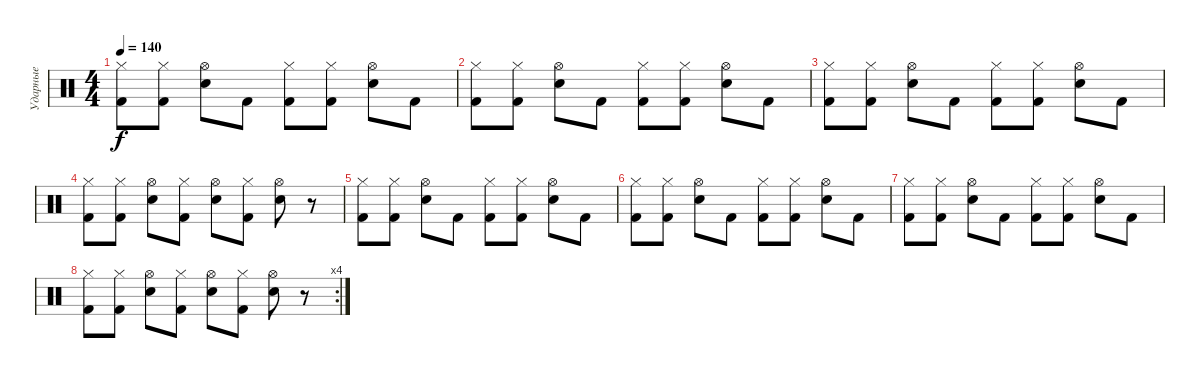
\track ("Ударные" "Ударные") {instrument percussion}
\staff {score}
\articulation defaults
\ts (4 4)
\tempo 140
\clef neutral
\ks c
("Hi-Hat (closed)" "Kick (hit) 2").8{dy f} ("Hi-Hat (closed)" "Kick (hit) 2").8 ("Hi-Hat (open)" "Electric Snare (hit)").8 "Kick (hit) 2".8 ("Hi-Hat (closed)" "Kick (hit) 2").8 ("Hi-Hat (closed)" "Kick (hit) 2").8 ("Hi-Hat (open)" "Electric Snare (hit)").8 "Kick (hit) 2".8 |
("Hi-Hat (closed)" "Kick (hit) 2").8 ("Hi-Hat (closed)" "Kick (hit) 2").8 ("Hi-Hat (open)" "Electric Snare (hit)").8 "Kick (hit) 2".8 ("Hi-Hat (closed)" "Kick (hit) 2").8 ("Hi-Hat (closed)" "Kick (hit) 2").8 ("Hi-Hat (open)" "Electric Snare (hit)").8 "Kick (hit) 2".8 |
("Hi-Hat (closed)" "Kick (hit) 2").8 ("Hi-Hat (closed)" "Kick (hit) 2").8 ("Hi-Hat (open)" "Electric Snare (hit)").8 "Kick (hit) 2".8 ("Hi-Hat (closed)" "Kick (hit) 2").8 ("Hi-Hat (closed)" "Kick (hit) 2").8 ("Hi-Hat (open)" "Electric Snare (hit)").8 "Kick (hit) 2".8 |
("Hi-Hat (closed)" "Kick (hit) 2").8 ("Hi-Hat (closed)" "Kick (hit) 2").8 ("Hi-Hat (open)" "Electric Snare (hit)").8 ("Hi-Hat (closed)" "Kick (hit) 2").8 ("Hi-Hat (open)" "Electric Snare (hit)").8 ("Hi-Hat (closed)" "Kick (hit) 2").8 ("Hi-Hat (open)" "Electric Snare (hit)").8 r.8 |
("Hi-Hat (closed)" "Kick (hit) 2").8 ("Hi-Hat (closed)" "Kick (hit) 2").8 ("Hi-Hat (open)" "Electric Snare (hit)").8 "Kick (hit) 2".8 ("Hi-Hat (closed)" "Kick (hit) 2").8 ("Hi-Hat (closed)" "Kick (hit) 2").8 ("Hi-Hat (open)" "Electric Snare (hit)").8 "Kick (hit) 2".8 |
("Hi-Hat (closed)" "Kick (hit) 2").8 ("Hi-Hat (closed)" "Kick (hit) 2").8 ("Hi-Hat (open)" "Electric Snare (hit)").8 "Kick (hit) 2".8 ("Hi-Hat (closed)" "Kick (hit) 2").8 ("Hi-Hat (closed)" "Kick (hit) 2").8 ("Hi-Hat (open)" "Electric Snare (hit)").8 "Kick (hit) 2".8 |
("Hi-Hat (closed)" "Kick (hit) 2").8 ("Hi-Hat (closed)" "Kick (hit) 2").8 ("Hi-Hat (open)" "Electric Snare (hit)").8 "Kick (hit) 2".8 ("Hi-Hat (closed)" "Kick (hit) 2").8 ("Hi-Hat (closed)" "Kick (hit) 2").8 ("Hi-Hat (open)" "Electric Snare (hit)").8 "Kick (hit) 2".8 |
\rc 4
("Hi-Hat (closed)" "Kick (hit) 2").8 ("Hi-Hat (closed)" "Kick (hit) 2").8 ("Hi-Hat (open)" "Electric Snare (hit)").8 ("Hi-Hat (closed)" "Kick (hit) 2").8 ("Hi-Hat (open)" "Electric Snare (hit)").8 ("Hi-Hat (closed)" "Kick (hit) 2").8 ("Hi-Hat (open)" "Electric Snare (hit)").8 r.8
